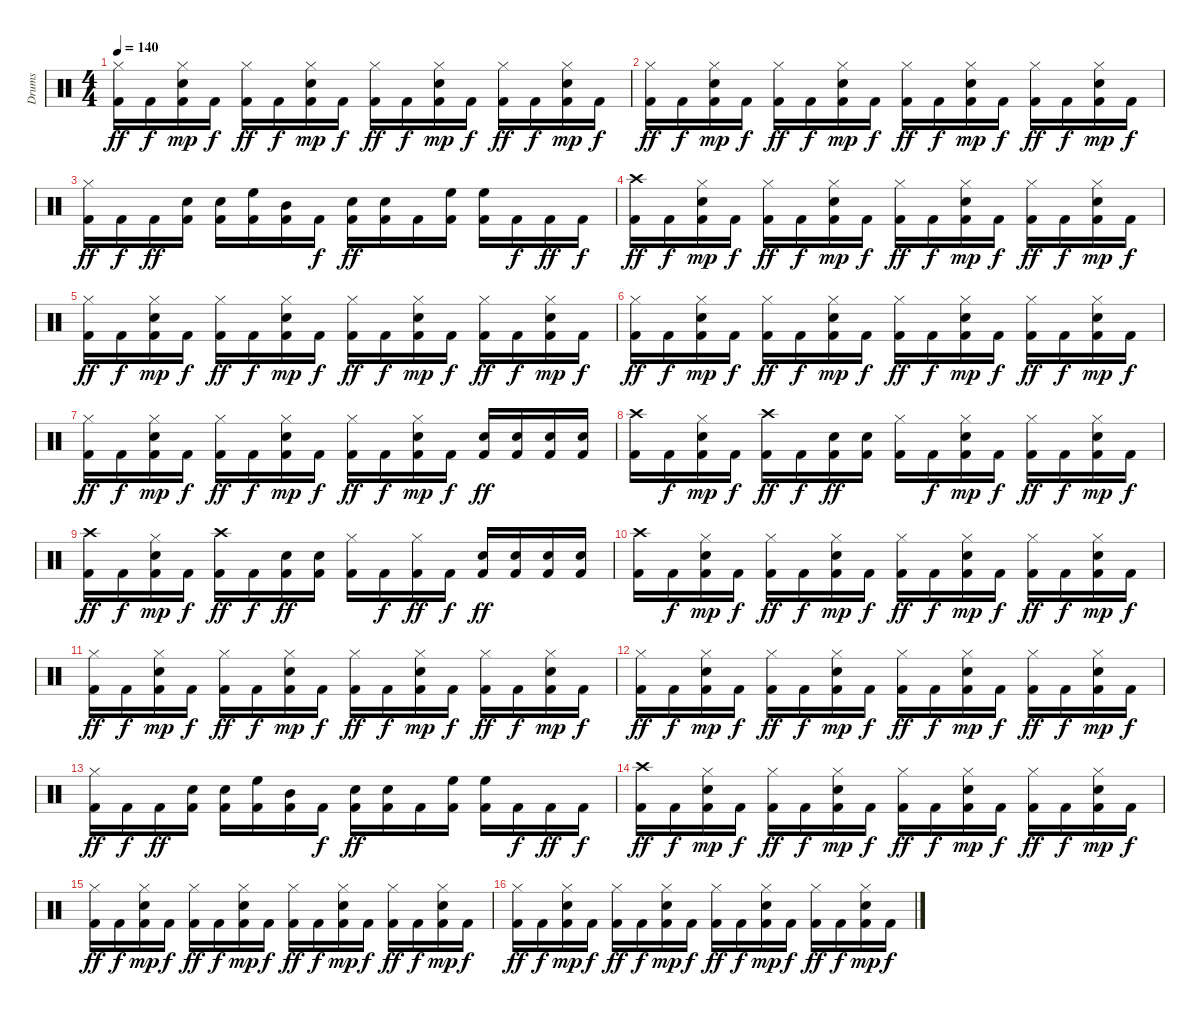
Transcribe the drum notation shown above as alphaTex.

\track ("Drums" "Drums") {instrument percussion}
\staff {score}
\articulation defaults
\ts (4 4)
\tempo 140
\clef neutral
\ks c
("Hi-Hat (closed)" "Kick (hit) 2").16{dy ff} "Kick (hit) 2".16{dy f} ("Kick (hit) 2" "Snare (hit) 2" "Hi-Hat (closed)").16{dy mp} "Kick (hit) 2".16{dy f} ("Hi-Hat (closed)" "Kick (hit) 2").16{dy ff} "Kick (hit) 2".16{dy f} ("Kick (hit) 2" "Snare (hit) 2" "Hi-Hat (closed)").16{dy mp} "Kick (hit) 2".16{dy f} ("Hi-Hat (closed)" "Kick (hit) 2").16{dy ff} "Kick (hit) 2".16{dy f} ("Kick (hit) 2" "Snare (hit) 2" "Hi-Hat (closed)").16{dy mp} "Kick (hit) 2".16{dy f} ("Hi-Hat (closed)" "Kick (hit) 2").16{dy ff} "Kick (hit) 2".16{dy f} ("Kick (hit) 2" "Snare (hit) 2" "Hi-Hat (closed)").16{dy mp} "Kick (hit) 2".16{dy f} |
("Hi-Hat (closed)" "Kick (hit) 2").16{dy ff} "Kick (hit) 2".16{dy f} ("Kick (hit) 2" "Snare (hit) 2" "Hi-Hat (closed)").16{dy mp} "Kick (hit) 2".16{dy f} ("Hi-Hat (closed)" "Kick (hit) 2").16{dy ff} "Kick (hit) 2".16{dy f} ("Kick (hit) 2" "Snare (hit) 2" "Hi-Hat (closed)").16{dy mp} "Kick (hit) 2".16{dy f} ("Hi-Hat (closed)" "Kick (hit) 2").16{dy ff} "Kick (hit) 2".16{dy f} ("Kick (hit) 2" "Snare (hit) 2" "Hi-Hat (closed)").16{dy mp} "Kick (hit) 2".16{dy f} ("Hi-Hat (closed)" "Kick (hit) 2").16{dy ff} "Kick (hit) 2".16{dy f} ("Kick (hit) 2" "Snare (hit) 2" "Hi-Hat (closed)").16{dy mp} "Kick (hit) 2".16{dy f} |
("Hi-Hat (closed)" "Kick (hit) 2").16{dy ff} "Kick (hit) 2".16{dy f} "Kick (hit) 2".16{dy ff} ("Snare (hit) 2" "Kick (hit) 2").16 ("Snare (hit) 2" "Kick (hit) 2").16 ("High Floor Tom (hit)" "Kick (hit) 2").16 ("Mid Tom (hit)" "Kick (hit) 2").16 "Kick (hit) 2".16{dy f} ("Snare (hit) 2" "Kick (hit) 2").16{dy ff} ("Snare (hit) 2" "Kick (hit) 2").16 "Kick (hit) 2".16 ("High Floor Tom (hit)" "Kick (hit) 2").16 ("High Floor Tom (hit)" "Kick (hit) 2").16 "Kick (hit) 2".16{dy f} "Kick (hit) 2".16{dy ff} "Kick (hit) 2".16{dy f} |
("Crash high (hit)" "Kick (hit) 2").16{dy ff} "Kick (hit) 2".16{dy f} ("Kick (hit) 2" "Snare (hit) 2" "Hi-Hat (closed)").16{dy mp} "Kick (hit) 2".16{dy f} ("Hi-Hat (closed)" "Kick (hit) 2").16{dy ff} "Kick (hit) 2".16{dy f} ("Kick (hit) 2" "Snare (hit) 2" "Hi-Hat (closed)").16{dy mp} "Kick (hit) 2".16{dy f} ("Hi-Hat (closed)" "Kick (hit) 2").16{dy ff} "Kick (hit) 2".16{dy f} ("Kick (hit) 2" "Snare (hit) 2" "Hi-Hat (closed)").16{dy mp} "Kick (hit) 2".16{dy f} ("Hi-Hat (closed)" "Kick (hit) 2").16{dy ff} "Kick (hit) 2".16{dy f} ("Kick (hit) 2" "Snare (hit) 2" "Hi-Hat (closed)").16{dy mp} "Kick (hit) 2".16{dy f} |
("Hi-Hat (closed)" "Kick (hit) 2").16{dy ff} "Kick (hit) 2".16{dy f} ("Kick (hit) 2" "Snare (hit) 2" "Hi-Hat (closed)").16{dy mp} "Kick (hit) 2".16{dy f} ("Hi-Hat (closed)" "Kick (hit) 2").16{dy ff} "Kick (hit) 2".16{dy f} ("Kick (hit) 2" "Snare (hit) 2" "Hi-Hat (closed)").16{dy mp} "Kick (hit) 2".16{dy f} ("Hi-Hat (closed)" "Kick (hit) 2").16{dy ff} "Kick (hit) 2".16{dy f} ("Kick (hit) 2" "Snare (hit) 2" "Hi-Hat (closed)").16{dy mp} "Kick (hit) 2".16{dy f} ("Hi-Hat (closed)" "Kick (hit) 2").16{dy ff} "Kick (hit) 2".16{dy f} ("Kick (hit) 2" "Snare (hit) 2" "Hi-Hat (closed)").16{dy mp} "Kick (hit) 2".16{dy f} |
("Hi-Hat (closed)" "Kick (hit) 2").16{dy ff} "Kick (hit) 2".16{dy f} ("Kick (hit) 2" "Snare (hit) 2" "Hi-Hat (closed)").16{dy mp} "Kick (hit) 2".16{dy f} ("Hi-Hat (closed)" "Kick (hit) 2").16{dy ff} "Kick (hit) 2".16{dy f} ("Kick (hit) 2" "Snare (hit) 2" "Hi-Hat (closed)").16{dy mp} "Kick (hit) 2".16{dy f} ("Hi-Hat (closed)" "Kick (hit) 2").16{dy ff} "Kick (hit) 2".16{dy f} ("Kick (hit) 2" "Snare (hit) 2" "Hi-Hat (closed)").16{dy mp} "Kick (hit) 2".16{dy f} ("Hi-Hat (closed)" "Kick (hit) 2").16{dy ff} "Kick (hit) 2".16{dy f} ("Kick (hit) 2" "Snare (hit) 2" "Hi-Hat (closed)").16{dy mp} "Kick (hit) 2".16{dy f} |
("Hi-Hat (closed)" "Kick (hit) 2").16{dy ff} "Kick (hit) 2".16{dy f} ("Kick (hit) 2" "Snare (hit) 2" "Hi-Hat (closed)").16{dy mp} "Kick (hit) 2".16{dy f} ("Hi-Hat (closed)" "Kick (hit) 2").16{dy ff} "Kick (hit) 2".16{dy f} ("Kick (hit) 2" "Snare (hit) 2" "Hi-Hat (closed)").16{dy mp} "Kick (hit) 2".16{dy f} ("Hi-Hat (closed)" "Kick (hit) 2").16{dy ff} "Kick (hit) 2".16{dy f} ("Kick (hit) 2" "Snare (hit) 2" "Hi-Hat (closed)").16{dy mp} "Kick (hit) 2".16{dy f} ("Snare (hit) 2" "Kick (hit) 2").16{dy ff} ("Snare (hit) 2" "Kick (hit) 2").16 ("Snare (hit) 2" "Kick (hit) 2").16 ("Snare (hit) 2" "Kick (hit) 2").16 |
("Crash high (hit)" "Kick (hit) 2").16 "Kick (hit) 2".16{dy f} ("Kick (hit) 2" "Snare (hit) 2" "Hi-Hat (closed)").16{dy mp} "Kick (hit) 2".16{dy f} ("Crash high (hit)" "Kick (hit) 2").16{dy ff} "Kick (hit) 2".16{dy f} ("Snare (hit) 2" "Kick (hit) 2").16{dy ff} ("Snare (hit) 2" "Kick (hit) 2").16 ("Hi-Hat (closed)" "Kick (hit) 2").16 "Kick (hit) 2".16{dy f} ("Kick (hit) 2" "Snare (hit) 2" "Hi-Hat (closed)").16{dy mp} "Kick (hit) 2".16{dy f} ("Hi-Hat (closed)" "Kick (hit) 2").16{dy ff} "Kick (hit) 2".16{dy f} ("Kick (hit) 2" "Snare (hit) 2" "Hi-Hat (closed)").16{dy mp} "Kick (hit) 2".16{dy f} |
("Crash high (hit)" "Kick (hit) 2").16{dy ff} "Kick (hit) 2".16{dy f} ("Kick (hit) 2" "Snare (hit) 2" "Hi-Hat (closed)").16{dy mp} "Kick (hit) 2".16{dy f} ("Crash high (hit)" "Kick (hit) 2").16{dy ff} "Kick (hit) 2".16{dy f} ("Snare (hit) 2" "Kick (hit) 2").16{dy ff} ("Snare (hit) 2" "Kick (hit) 2").16 ("Hi-Hat (closed)" "Kick (hit) 2").16 "Kick (hit) 2".16{dy f} ("Hi-Hat (closed)" "Kick (hit) 2").16{dy ff} "Kick (hit) 2".16{dy f} ("Snare (hit) 2" "Kick (hit) 2").16{dy ff} ("Snare (hit) 2" "Kick (hit) 2").16 ("Snare (hit) 2" "Kick (hit) 2").16 ("Snare (hit) 2" "Kick (hit) 2").16 |
("Crash high (hit)" "Kick (hit) 2").16 "Kick (hit) 2".16{dy f} ("Kick (hit) 2" "Snare (hit) 2" "Hi-Hat (closed)").16{dy mp} "Kick (hit) 2".16{dy f} ("Hi-Hat (closed)" "Kick (hit) 2").16{dy ff} "Kick (hit) 2".16{dy f} ("Kick (hit) 2" "Snare (hit) 2" "Hi-Hat (closed)").16{dy mp} "Kick (hit) 2".16{dy f} ("Hi-Hat (closed)" "Kick (hit) 2").16{dy ff} "Kick (hit) 2".16{dy f} ("Kick (hit) 2" "Snare (hit) 2" "Hi-Hat (closed)").16{dy mp} "Kick (hit) 2".16{dy f} ("Hi-Hat (closed)" "Kick (hit) 2").16{dy ff} "Kick (hit) 2".16{dy f} ("Kick (hit) 2" "Snare (hit) 2" "Hi-Hat (closed)").16{dy mp} "Kick (hit) 2".16{dy f} |
("Hi-Hat (closed)" "Kick (hit) 2").16{dy ff} "Kick (hit) 2".16{dy f} ("Kick (hit) 2" "Snare (hit) 2" "Hi-Hat (closed)").16{dy mp} "Kick (hit) 2".16{dy f} ("Hi-Hat (closed)" "Kick (hit) 2").16{dy ff} "Kick (hit) 2".16{dy f} ("Kick (hit) 2" "Snare (hit) 2" "Hi-Hat (closed)").16{dy mp} "Kick (hit) 2".16{dy f} ("Hi-Hat (closed)" "Kick (hit) 2").16{dy ff} "Kick (hit) 2".16{dy f} ("Kick (hit) 2" "Snare (hit) 2" "Hi-Hat (closed)").16{dy mp} "Kick (hit) 2".16{dy f} ("Hi-Hat (closed)" "Kick (hit) 2").16{dy ff} "Kick (hit) 2".16{dy f} ("Kick (hit) 2" "Snare (hit) 2" "Hi-Hat (closed)").16{dy mp} "Kick (hit) 2".16{dy f} |
("Hi-Hat (closed)" "Kick (hit) 2").16{dy ff} "Kick (hit) 2".16{dy f} ("Kick (hit) 2" "Snare (hit) 2" "Hi-Hat (closed)").16{dy mp} "Kick (hit) 2".16{dy f} ("Hi-Hat (closed)" "Kick (hit) 2").16{dy ff} "Kick (hit) 2".16{dy f} ("Kick (hit) 2" "Snare (hit) 2" "Hi-Hat (closed)").16{dy mp} "Kick (hit) 2".16{dy f} ("Hi-Hat (closed)" "Kick (hit) 2").16{dy ff} "Kick (hit) 2".16{dy f} ("Kick (hit) 2" "Snare (hit) 2" "Hi-Hat (closed)").16{dy mp} "Kick (hit) 2".16{dy f} ("Hi-Hat (closed)" "Kick (hit) 2").16{dy ff} "Kick (hit) 2".16{dy f} ("Kick (hit) 2" "Snare (hit) 2" "Hi-Hat (closed)").16{dy mp} "Kick (hit) 2".16{dy f} |
("Hi-Hat (closed)" "Kick (hit) 2").16{dy ff} "Kick (hit) 2".16{dy f} "Kick (hit) 2".16{dy ff} ("Snare (hit) 2" "Kick (hit) 2").16 ("Snare (hit) 2" "Kick (hit) 2").16 ("High Floor Tom (hit)" "Kick (hit) 2").16 ("Mid Tom (hit)" "Kick (hit) 2").16 "Kick (hit) 2".16{dy f} ("Snare (hit) 2" "Kick (hit) 2").16{dy ff} ("Snare (hit) 2" "Kick (hit) 2").16 "Kick (hit) 2".16 ("High Floor Tom (hit)" "Kick (hit) 2").16 ("High Floor Tom (hit)" "Kick (hit) 2").16 "Kick (hit) 2".16{dy f} "Kick (hit) 2".16{dy ff} "Kick (hit) 2".16{dy f} |
("Crash high (hit)" "Kick (hit) 2").16{dy ff} "Kick (hit) 2".16{dy f} ("Kick (hit) 2" "Snare (hit) 2" "Hi-Hat (closed)").16{dy mp} "Kick (hit) 2".16{dy f} ("Hi-Hat (closed)" "Kick (hit) 2").16{dy ff} "Kick (hit) 2".16{dy f} ("Kick (hit) 2" "Snare (hit) 2" "Hi-Hat (closed)").16{dy mp} "Kick (hit) 2".16{dy f} ("Hi-Hat (closed)" "Kick (hit) 2").16{dy ff} "Kick (hit) 2".16{dy f} ("Kick (hit) 2" "Snare (hit) 2" "Hi-Hat (closed)").16{dy mp} "Kick (hit) 2".16{dy f} ("Hi-Hat (closed)" "Kick (hit) 2").16{dy ff} "Kick (hit) 2".16{dy f} ("Kick (hit) 2" "Snare (hit) 2" "Hi-Hat (closed)").16{dy mp} "Kick (hit) 2".16{dy f} |
("Hi-Hat (closed)" "Kick (hit) 2").16{dy ff} "Kick (hit) 2".16{dy f} ("Kick (hit) 2" "Snare (hit) 2" "Hi-Hat (closed)").16{dy mp} "Kick (hit) 2".16{dy f} ("Hi-Hat (closed)" "Kick (hit) 2").16{dy ff} "Kick (hit) 2".16{dy f} ("Kick (hit) 2" "Snare (hit) 2" "Hi-Hat (closed)").16{dy mp} "Kick (hit) 2".16{dy f} ("Hi-Hat (closed)" "Kick (hit) 2").16{dy ff} "Kick (hit) 2".16{dy f} ("Kick (hit) 2" "Snare (hit) 2" "Hi-Hat (closed)").16{dy mp} "Kick (hit) 2".16{dy f} ("Hi-Hat (closed)" "Kick (hit) 2").16{dy ff} "Kick (hit) 2".16{dy f} ("Kick (hit) 2" "Snare (hit) 2" "Hi-Hat (closed)").16{dy mp} "Kick (hit) 2".16{dy f} |
("Hi-Hat (closed)" "Kick (hit) 2").16{dy ff} "Kick (hit) 2".16{dy f} ("Kick (hit) 2" "Snare (hit) 2" "Hi-Hat (closed)").16{dy mp} "Kick (hit) 2".16{dy f} ("Hi-Hat (closed)" "Kick (hit) 2").16{dy ff} "Kick (hit) 2".16{dy f} ("Kick (hit) 2" "Snare (hit) 2" "Hi-Hat (closed)").16{dy mp} "Kick (hit) 2".16{dy f} ("Hi-Hat (closed)" "Kick (hit) 2").16{dy ff} "Kick (hit) 2".16{dy f} ("Kick (hit) 2" "Snare (hit) 2" "Hi-Hat (closed)").16{dy mp} "Kick (hit) 2".16{dy f} ("Hi-Hat (closed)" "Kick (hit) 2").16{dy ff} "Kick (hit) 2".16{dy f} ("Kick (hit) 2" "Snare (hit) 2" "Hi-Hat (closed)").16{dy mp} "Kick (hit) 2".16{dy f}
